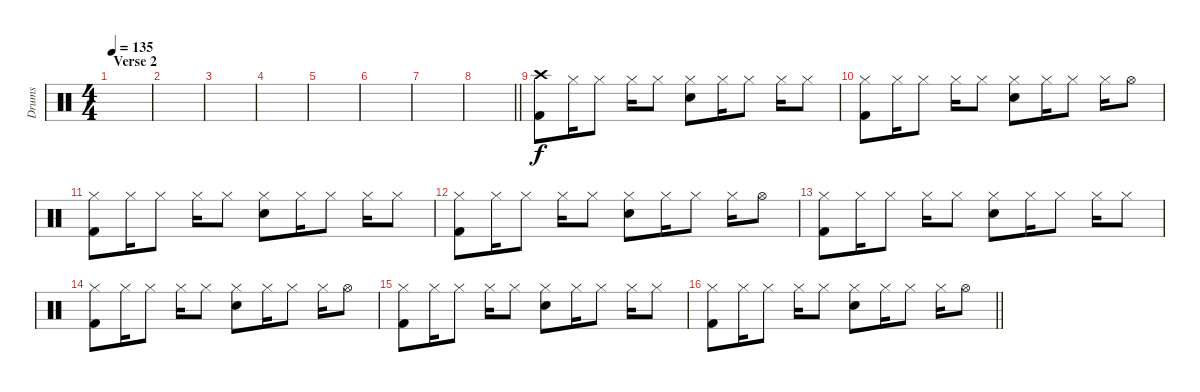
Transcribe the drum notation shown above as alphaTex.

\track ("Drums" "Drums") {instrument percussion}
\staff {score}
\articulation defaults
\ts (4 4)
\section ("" "Verse 2")
\tempo 135
\clef neutral
\ks c
|
|
|
|
|
|
|
\barLineRight lightlight
|
("Crash high (hit)" "Kick (hit) 2").8 "Hi-Hat (closed)".16 "Hi-Hat (closed)".8 "Hi-Hat (closed)".16 "Hi-Hat (closed)".8 ("Hi-Hat (closed)" "Electric Snare (hit)").8 "Hi-Hat (closed)".16 "Hi-Hat (closed)".8 "Hi-Hat (closed)".16 "Hi-Hat (closed)".8 |
("Hi-Hat (closed)" "Kick (hit) 2").8 "Hi-Hat (closed)".16 "Hi-Hat (closed)".8 "Hi-Hat (closed)".16 "Hi-Hat (closed)".8 ("Hi-Hat (closed)" "Electric Snare (hit)").8 "Hi-Hat (closed)".16 "Hi-Hat (closed)".8 "Hi-Hat (closed)".16 "Hi-Hat (open)".8 |
("Hi-Hat (closed)" "Kick (hit) 2").8 "Hi-Hat (closed)".16 "Hi-Hat (closed)".8 "Hi-Hat (closed)".16 "Hi-Hat (closed)".8 ("Hi-Hat (closed)" "Electric Snare (hit)").8 "Hi-Hat (closed)".16 "Hi-Hat (closed)".8 "Hi-Hat (closed)".16 "Hi-Hat (closed)".8 |
("Hi-Hat (closed)" "Kick (hit) 2").8 "Hi-Hat (closed)".16 "Hi-Hat (closed)".8 "Hi-Hat (closed)".16 "Hi-Hat (closed)".8 ("Hi-Hat (closed)" "Electric Snare (hit)").8 "Hi-Hat (closed)".16 "Hi-Hat (closed)".8 "Hi-Hat (closed)".16 "Hi-Hat (open)".8 |
("Hi-Hat (closed)" "Kick (hit) 2").8 "Hi-Hat (closed)".16 "Hi-Hat (closed)".8 "Hi-Hat (closed)".16 "Hi-Hat (closed)".8 ("Hi-Hat (closed)" "Electric Snare (hit)").8 "Hi-Hat (closed)".16 "Hi-Hat (closed)".8 "Hi-Hat (closed)".16 "Hi-Hat (closed)".8 |
("Hi-Hat (closed)" "Kick (hit) 2").8 "Hi-Hat (closed)".16 "Hi-Hat (closed)".8 "Hi-Hat (closed)".16 "Hi-Hat (closed)".8 ("Hi-Hat (closed)" "Electric Snare (hit)").8 "Hi-Hat (closed)".16 "Hi-Hat (closed)".8 "Hi-Hat (closed)".16 "Hi-Hat (open)".8 |
("Hi-Hat (closed)" "Kick (hit) 2").8 "Hi-Hat (closed)".16 "Hi-Hat (closed)".8 "Hi-Hat (closed)".16 "Hi-Hat (closed)".8 ("Hi-Hat (closed)" "Electric Snare (hit)").8 "Hi-Hat (closed)".16 "Hi-Hat (closed)".8 "Hi-Hat (closed)".16 "Hi-Hat (closed)".8 |
\barLineRight lightlight
("Hi-Hat (closed)" "Kick (hit) 2").8 "Hi-Hat (closed)".16 "Hi-Hat (closed)".8 "Hi-Hat (closed)".16 "Hi-Hat (closed)".8 ("Hi-Hat (closed)" "Electric Snare (hit)").8 "Hi-Hat (closed)".16 "Hi-Hat (closed)".8 "Hi-Hat (closed)".16 "Hi-Hat (open)".8
